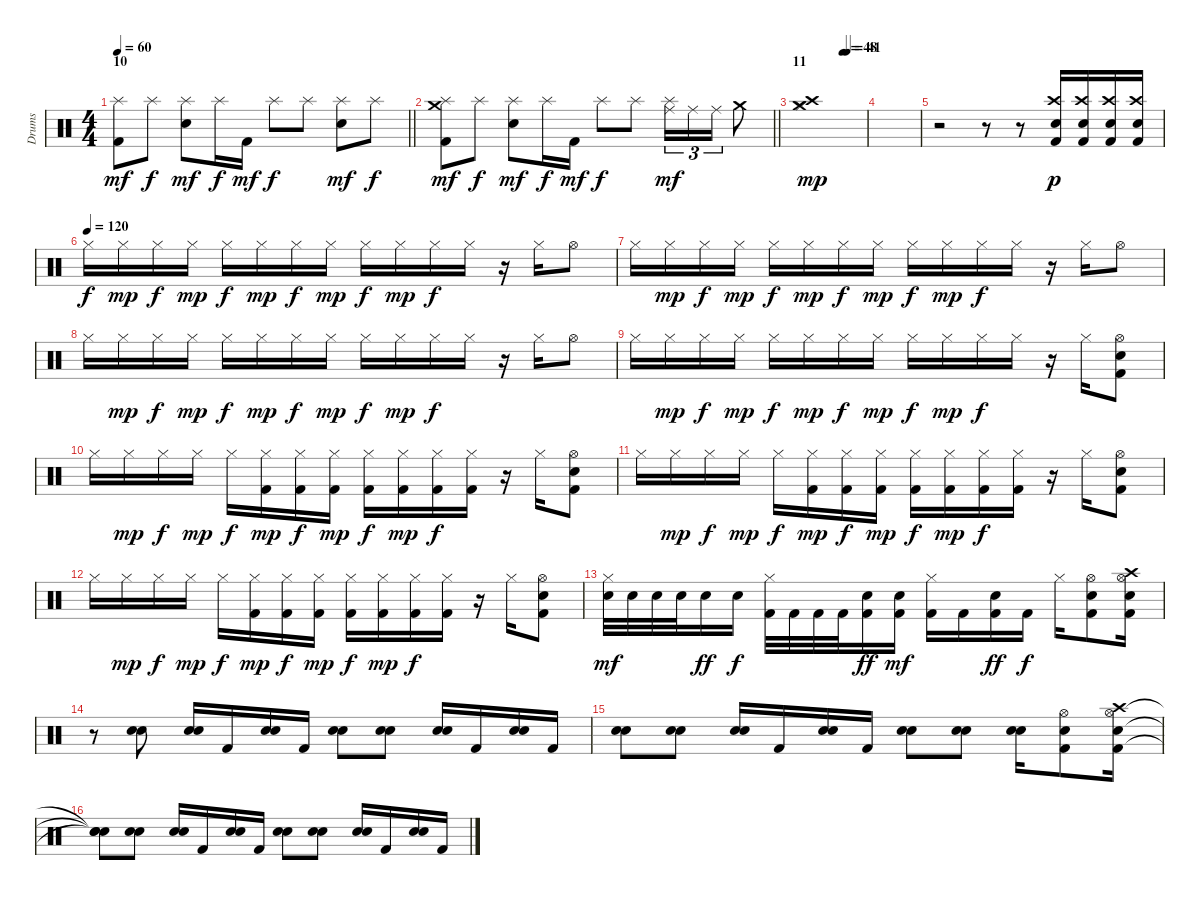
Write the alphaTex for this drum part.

\track ("Drums" "Drums") {instrument percussion}
\staff {score}
\articulation defaults
\ts (4 4)
\section ("" "10")
\tempo 60
\clef neutral
\barLineRight lightlight
\ks c
("Splash (hit)" "Kick (hit) 2").8{dy mf} "Splash (hit)".8{dy f} ("Splash (hit)" "Electric Snare (hit)").8{dy mf} "Splash (hit)".16{dy f} "Kick (hit) 2".16{dy mf} "Splash (hit)".8{dy f} "Splash (hit)".8 ("Splash (hit)" "Electric Snare (hit)").8{dy mf} "Splash (hit)".8{dy f} |
\section ("" "")
\barLineRight lightlight
("Splash (hit)" "Kick (hit) 2" "Crash medium (hit)").8{dy mf} "Splash (hit)".8{dy f} ("Splash (hit)" "Electric Snare (hit)").8{dy mf} "Splash (hit)".16{dy f} "Kick (hit) 2".16{dy mf} "Splash (hit)".8{dy f} "Splash (hit)".8 ("Splash (hit)" "Ride (middle)").16{tu (3 2) dy mf} "Ride (middle)".16{tu (3 2)} "Ride (middle)".16{tu (3 2)} "Crash medium (hit)".8 |
\section ("" "11")
\tempo (48 0.625)
\tempo (41 0.6875)
("Crash high (hit)" "Crash medium (hit)" "Hi-Hat (closed)").1{dy mp} |
|
r.2 r.8 r.8 ("Snare (hit) 2" "Kick (hit) 2" "Crash high (hit)").16{dy p} ("Snare (hit) 2" "Kick (hit) 2" "Crash high (hit)").16 ("Snare (hit) 2" "Kick (hit) 2" "Crash high (hit)").16 ("Snare (hit) 2" "Kick (hit) 2" "Crash high (hit)").16 |
\tempo (120)
"Hi-Hat (closed)".16{dy f} "Hi-Hat (closed)".16{dy mp} "Hi-Hat (closed)".16{dy f} "Hi-Hat (closed)".16{dy mp} "Hi-Hat (closed)".16{dy f} "Hi-Hat (closed)".16{dy mp} "Hi-Hat (closed)".16{dy f} "Hi-Hat (closed)".16{dy mp} "Hi-Hat (closed)".16{dy f} "Hi-Hat (closed)".16{dy mp} "Hi-Hat (closed)".16{dy f} "Hi-Hat (closed)".16 r.16 "Hi-Hat (closed)".16 "Hi-Hat (open)".8 |
"Hi-Hat (closed)".16 "Hi-Hat (closed)".16{dy mp} "Hi-Hat (closed)".16{dy f} "Hi-Hat (closed)".16{dy mp} "Hi-Hat (closed)".16{dy f} "Hi-Hat (closed)".16{dy mp} "Hi-Hat (closed)".16{dy f} "Hi-Hat (closed)".16{dy mp} "Hi-Hat (closed)".16{dy f} "Hi-Hat (closed)".16{dy mp} "Hi-Hat (closed)".16{dy f} "Hi-Hat (closed)".16 r.16 "Hi-Hat (closed)".16 "Hi-Hat (open)".8 |
"Hi-Hat (closed)".16 "Hi-Hat (closed)".16{dy mp} "Hi-Hat (closed)".16{dy f} "Hi-Hat (closed)".16{dy mp} "Hi-Hat (closed)".16{dy f} "Hi-Hat (closed)".16{dy mp} "Hi-Hat (closed)".16{dy f} "Hi-Hat (closed)".16{dy mp} "Hi-Hat (closed)".16{dy f} "Hi-Hat (closed)".16{dy mp} "Hi-Hat (closed)".16{dy f} "Hi-Hat (closed)".16 r.16 "Hi-Hat (closed)".16 "Hi-Hat (open)".8 |
"Hi-Hat (closed)".16 "Hi-Hat (closed)".16{dy mp} "Hi-Hat (closed)".16{dy f} "Hi-Hat (closed)".16{dy mp} "Hi-Hat (closed)".16{dy f} "Hi-Hat (closed)".16{dy mp} "Hi-Hat (closed)".16{dy f} "Hi-Hat (closed)".16{dy mp} "Hi-Hat (closed)".16{dy f} "Hi-Hat (closed)".16{dy mp} "Hi-Hat (closed)".16{dy f} "Hi-Hat (closed)".16 r.16 "Hi-Hat (closed)".16 ("Snare (hit) 2" "Kick (hit) 2" "Hi-Hat (open)").8 |
"Hi-Hat (closed)".16 "Hi-Hat (closed)".16{dy mp} "Hi-Hat (closed)".16{dy f} "Hi-Hat (closed)".16{dy mp} "Hi-Hat (closed)".16{dy f} ("Kick (hit) 2" "Hi-Hat (closed)").16{dy mp} ("Kick (hit) 2" "Hi-Hat (closed)").16{dy f} ("Kick (hit) 2" "Hi-Hat (closed)").16{dy mp} ("Kick (hit) 2" "Hi-Hat (closed)").16{dy f} ("Kick (hit) 2" "Hi-Hat (closed)").16{dy mp} ("Kick (hit) 2" "Hi-Hat (closed)").16{dy f} ("Kick (hit) 2" "Hi-Hat (closed)").16 r.16 "Hi-Hat (closed)".16 ("Snare (hit) 2" "Kick (hit) 2" "Hi-Hat (open)").8 |
"Hi-Hat (closed)".16 "Hi-Hat (closed)".16{dy mp} "Hi-Hat (closed)".16{dy f} "Hi-Hat (closed)".16{dy mp} "Hi-Hat (closed)".16{dy f} ("Kick (hit) 2" "Hi-Hat (closed)").16{dy mp} ("Kick (hit) 2" "Hi-Hat (closed)").16{dy f} ("Kick (hit) 2" "Hi-Hat (closed)").16{dy mp} ("Kick (hit) 2" "Hi-Hat (closed)").16{dy f} ("Kick (hit) 2" "Hi-Hat (closed)").16{dy mp} ("Kick (hit) 2" "Hi-Hat (closed)").16{dy f} ("Kick (hit) 2" "Hi-Hat (closed)").16 r.16 "Hi-Hat (closed)".16 ("Snare (hit) 2" "Kick (hit) 2" "Hi-Hat (open)").8 |
"Hi-Hat (closed)".16 "Hi-Hat (closed)".16{dy mp} "Hi-Hat (closed)".16{dy f} "Hi-Hat (closed)".16{dy mp} "Hi-Hat (closed)".16{dy f} ("Kick (hit) 2" "Hi-Hat (closed)").16{dy mp} ("Kick (hit) 2" "Hi-Hat (closed)").16{dy f} ("Kick (hit) 2" "Hi-Hat (closed)").16{dy mp} ("Kick (hit) 2" "Hi-Hat (closed)").16{dy f} ("Kick (hit) 2" "Hi-Hat (closed)").16{dy mp} ("Kick (hit) 2" "Hi-Hat (closed)").16{dy f} ("Kick (hit) 2" "Hi-Hat (closed)").16 r.16 "Hi-Hat (closed)".16 ("Snare (hit) 2" "Kick (hit) 2" "Hi-Hat (open)").8 |
("Snare (hit) 2" "Hi-Hat (closed)").32{dy mf} "Snare (hit) 2".32 "Snare (hit) 2".32 "Snare (hit) 2".32 "Snare (hit) 2".16{dy ff} "Snare (hit) 2".16{dy f} ("Kick (hit) 2" "Hi-Hat (closed)").32 "Kick (hit) 2".32 "Kick (hit) 2".32 "Kick (hit) 2".32 ("Snare (hit) 2" "Kick (hit) 2").16{dy ff} ("Snare (hit) 2" "Kick (hit) 2").16{dy mf} ("Kick (hit) 2" "Hi-Hat (closed)").16 "Kick (hit) 2".16 ("Snare (hit) 2" "Kick (hit) 2").16{dy ff} "Kick (hit) 2".16{dy f} "Hi-Hat (closed)".16 ("Snare (hit) 2" "Kick (hit) 2" "Hi-Hat (open)").8 ("Snare (hit) 2" "Kick (hit) 2" "Crash high (hit)" "Hi-Hat (open)").16 |
r.8 ("Snare (hit) 2" "Snare (hit) 2").8 ("Snare (hit) 2" "Snare (hit) 2").16 "Kick (hit) 2".16 ("Snare (hit) 2" "Snare (hit) 2").16 "Kick (hit) 2".16 ("Snare (hit) 2" "Snare (hit) 2").8 ("Snare (hit) 2" "Snare (hit) 2").8 ("Snare (hit) 2" "Snare (hit) 2").16 "Kick (hit) 2".16 ("Snare (hit) 2" "Snare (hit) 2").16 "Kick (hit) 2".16 |
("Snare (hit) 2" "Snare (hit) 2").8 ("Snare (hit) 2" "Snare (hit) 2").8 ("Snare (hit) 2" "Snare (hit) 2").16 "Kick (hit) 2".16 ("Snare (hit) 2" "Snare (hit) 2").16 "Kick (hit) 2".16 ("Snare (hit) 2" "Snare (hit) 2").8 ("Snare (hit) 2" "Snare (hit) 2").8 ("Snare (hit) 2" "Snare (hit) 2").16 ("Hi-Hat (open)" "Snare (hit) 2" "Kick (hit) 2").8 ("Hi-Hat (open)" "Snare (hit) 2" "Kick (hit) 2" "Crash high (hit)").16 |
("Snare (hit) 2"{t} "Snare (hit) 2"{t} "Snare (hit)"{t}).8 ("Snare (hit) 2" "Snare (hit) 2").8 ("Snare (hit) 2" "Snare (hit) 2").16 "Kick (hit) 2".16 ("Snare (hit) 2" "Snare (hit) 2").16 "Kick (hit) 2".16 ("Snare (hit) 2" "Snare (hit) 2").8 ("Snare (hit) 2" "Snare (hit) 2").8 ("Snare (hit) 2" "Snare (hit) 2").16 "Kick (hit) 2".16 ("Snare (hit) 2" "Snare (hit) 2").16 "Kick (hit) 2".16
